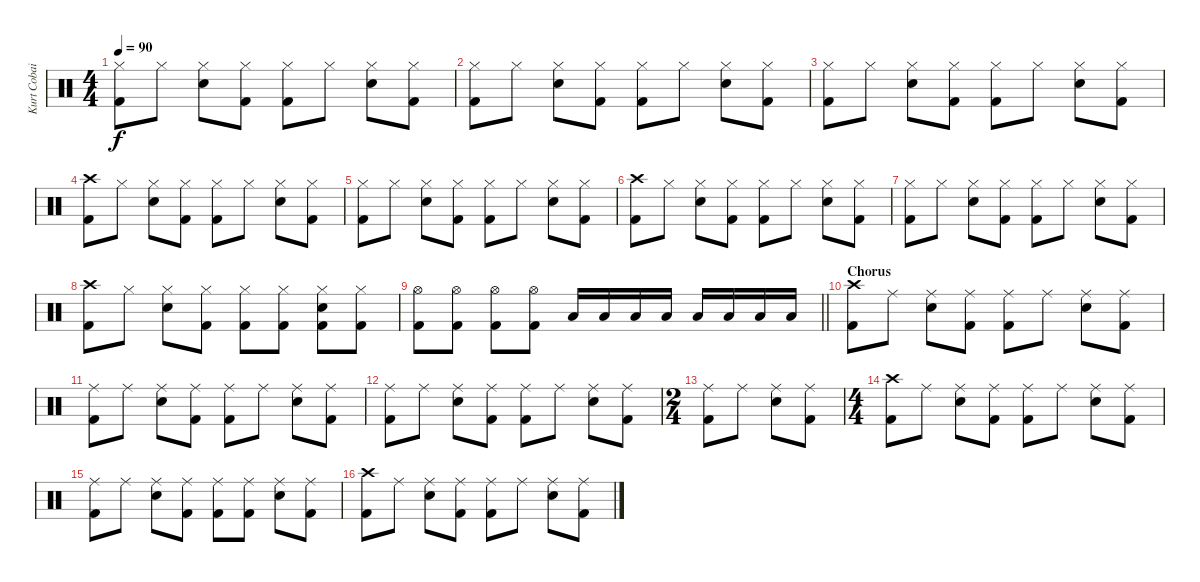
\track ("Kurt Cobain" "Kurt Cobai") {instrument percussion}
\staff {score}
\articulation defaults
\ts (4 4)
\tempo 90
\clef neutral
\ks c
("Hi-Hat (closed)" "Kick (hit) 2").8{dy f} "Hi-Hat (closed)".8 ("Hi-Hat (closed)" "Snare (hit) 2").8 ("Hi-Hat (closed)" "Kick (hit) 2").8 ("Hi-Hat (closed)" "Kick (hit) 2").8 "Hi-Hat (closed)".8 ("Hi-Hat (closed)" "Snare (hit) 2").8 ("Hi-Hat (closed)" "Kick (hit) 2").8 |
("Hi-Hat (closed)" "Kick (hit) 2").8 "Hi-Hat (closed)".8 ("Hi-Hat (closed)" "Snare (hit) 2").8 ("Hi-Hat (closed)" "Kick (hit) 2").8 ("Hi-Hat (closed)" "Kick (hit) 2").8 "Hi-Hat (closed)".8 ("Hi-Hat (closed)" "Snare (hit) 2").8 ("Hi-Hat (closed)" "Kick (hit) 2").8 |
("Hi-Hat (closed)" "Kick (hit) 2").8 "Hi-Hat (closed)".8 ("Hi-Hat (closed)" "Snare (hit) 2").8 ("Hi-Hat (closed)" "Kick (hit) 2").8 ("Hi-Hat (closed)" "Kick (hit) 2").8 "Hi-Hat (closed)".8 ("Hi-Hat (closed)" "Snare (hit) 2").8 ("Hi-Hat (closed)" "Kick (hit) 2").8 |
("Crash high (hit)" "Kick (hit) 2").8 "Hi-Hat (closed)".8 ("Hi-Hat (closed)" "Snare (hit) 2").8 ("Hi-Hat (closed)" "Kick (hit) 2").8 ("Hi-Hat (closed)" "Kick (hit) 2").8 "Hi-Hat (closed)".8 ("Hi-Hat (closed)" "Snare (hit) 2").8 ("Hi-Hat (closed)" "Kick (hit) 2").8 |
("Hi-Hat (closed)" "Kick (hit) 2").8 "Hi-Hat (closed)".8 ("Hi-Hat (closed)" "Snare (hit) 2").8 ("Hi-Hat (closed)" "Kick (hit) 2").8 ("Hi-Hat (closed)" "Kick (hit) 2").8 "Hi-Hat (closed)".8 ("Hi-Hat (closed)" "Snare (hit) 2").8 ("Hi-Hat (closed)" "Kick (hit) 2").8 |
("Crash high (hit)" "Kick (hit) 2").8 "Hi-Hat (closed)".8 ("Hi-Hat (closed)" "Snare (hit) 2").8 ("Hi-Hat (closed)" "Kick (hit) 2").8 ("Hi-Hat (closed)" "Kick (hit) 2").8 "Hi-Hat (closed)".8 ("Hi-Hat (closed)" "Snare (hit) 2").8 ("Hi-Hat (closed)" "Kick (hit) 2").8 |
("Hi-Hat (closed)" "Kick (hit) 2").8 "Hi-Hat (closed)".8 ("Hi-Hat (closed)" "Snare (hit) 2").8 ("Hi-Hat (closed)" "Kick (hit) 2").8 ("Hi-Hat (closed)" "Kick (hit) 2").8 "Hi-Hat (closed)".8 ("Hi-Hat (closed)" "Snare (hit) 2").8 ("Hi-Hat (closed)" "Kick (hit) 2").8 |
("Crash high (hit)" "Kick (hit) 2").8 "Hi-Hat (closed)".8 ("Hi-Hat (closed)" "Snare (hit) 2").8 ("Hi-Hat (closed)" "Kick (hit) 2").8 ("Hi-Hat (closed)" "Kick (hit) 2").8 ("Hi-Hat (closed)" "Kick (hit) 2").8 ("Hi-Hat (closed)" "Snare (hit) 2" "Kick (hit) 2").8 ("Hi-Hat (closed)" "Kick (hit) 2").8 |
\barLineRight lightlight
("Hi-Hat (open)" "Kick (hit) 2").8 ("Hi-Hat (open)" "Kick (hit) 2").8 ("Hi-Hat (open)" "Kick (hit) 2").8 ("Hi-Hat (open)" "Kick (hit) 2").8 "Low Tom (hit)".16 "Low Tom (hit)".16 "Low Tom (hit)".16 "Low Tom (hit)".16 "Low Tom (hit)".16 "Low Tom (hit)".16 "Low Tom (hit)".16 "Low Tom (hit)".16 |
\section ("" "Chorus")
("Crash high (hit)" "Kick (hit) 2").8 "Ride (middle)".8 ("Ride (middle)" "Snare (hit) 2").8 ("Ride (middle)" "Kick (hit) 2").8 ("Ride (middle)" "Kick (hit) 2").8 "Ride (middle)".8 ("Ride (middle)" "Snare (hit) 2").8 ("Ride (middle)" "Kick (hit) 2").8 |
("Ride (middle)" "Kick (hit) 2").8 "Ride (middle)".8 ("Ride (middle)" "Snare (hit) 2").8 ("Ride (middle)" "Kick (hit) 2").8 ("Ride (middle)" "Kick (hit) 2").8 "Ride (middle)".8 ("Ride (middle)" "Snare (hit) 2").8 ("Ride (middle)" "Kick (hit) 2").8 |
("Ride (middle)" "Kick (hit) 2").8 "Ride (middle)".8 ("Ride (middle)" "Snare (hit) 2").8 ("Ride (middle)" "Kick (hit) 2").8 ("Ride (middle)" "Kick (hit) 2").8 "Ride (middle)".8 ("Ride (middle)" "Snare (hit) 2").8 ("Ride (middle)" "Kick (hit) 2").8 |
\ts (2 4)
("Ride (middle)" "Kick (hit) 2").8 "Ride (middle)".8 ("Ride (middle)" "Snare (hit) 2").8 ("Ride (middle)" "Kick (hit) 2").8 |
\ts (4 4)
("Crash high (hit)" "Kick (hit) 2").8 "Ride (middle)".8 ("Ride (middle)" "Snare (hit) 2").8 ("Ride (middle)" "Kick (hit) 2").8 ("Ride (middle)" "Kick (hit) 2").8 "Ride (middle)".8 ("Ride (middle)" "Snare (hit) 2").8 ("Ride (middle)" "Kick (hit) 2").8 |
("Ride (middle)" "Kick (hit) 2").8 "Ride (middle)".8 ("Ride (middle)" "Snare (hit) 2").8 ("Ride (middle)" "Kick (hit) 2").8 ("Ride (middle)" "Kick (hit) 2").8 ("Ride (middle)" "Kick (hit) 2").8 ("Ride (middle)" "Snare (hit) 2").8 ("Ride (middle)" "Kick (hit) 2").8 |
("Crash high (hit)" "Kick (hit) 2").8 "Ride (middle)".8 ("Ride (middle)" "Snare (hit) 2").8 ("Ride (middle)" "Kick (hit) 2").8 ("Ride (middle)" "Kick (hit) 2").8 "Ride (middle)".8 ("Ride (middle)" "Snare (hit) 2").8 ("Ride (middle)" "Kick (hit) 2").8
